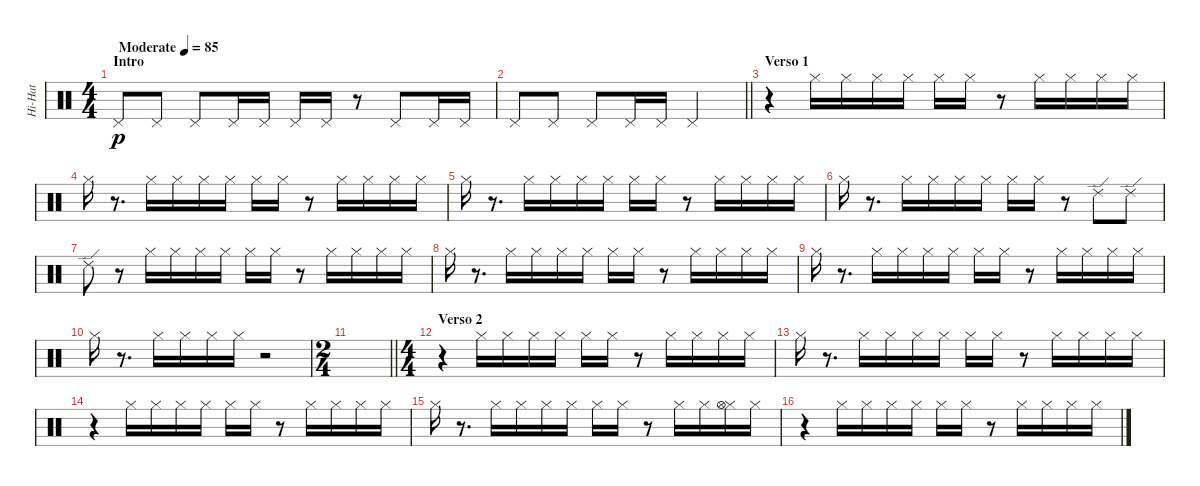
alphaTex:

\track ("Hi-Hat" "Hi-Hat") {instrument percussion}
\staff {score}
\articulation defaults
\ts (4 4)
\section ("" "Intro")
\tempo (85 "Moderate")
\clef neutral
\ks c "Pedal Hi-Hat (hit)".8{dy p} "Pedal Hi-Hat (hit)".8 "Pedal Hi-Hat (hit)".8 "Pedal Hi-Hat (hit)".16 "Pedal Hi-Hat (hit)".16 "Pedal Hi-Hat (hit)".16 "Pedal Hi-Hat (hit)".16
r.8 "Pedal Hi-Hat (hit)".8 "Pedal Hi-Hat (hit)".16 "Pedal Hi-Hat (hit)".16 |
\barLineRight lightlight "Pedal Hi-Hat (hit)".8 "Pedal Hi-Hat (hit)".8 "Pedal Hi-Hat (hit)".8 "Pedal Hi-Hat (hit)".16 "Pedal Hi-Hat (hit)".16 "Pedal Hi-Hat (hit)".2
|
\section ("" "Verso 1")
r.4 "Hi-Hat (closed)".16 "Hi-Hat (closed)".16 "Hi-Hat (closed)".16 "Hi-Hat (closed)".16 "Hi-Hat (closed)".16 "Hi-Hat (closed)".16 r.8 "Hi-Hat (closed)".16 "Hi-Hat (closed)".16 "Hi-Hat (closed)".16 "Hi-Hat (closed)".16 |
"Hi-Hat (closed)".16 r.8{d} "Hi-Hat (closed)".16 "Hi-Hat (closed)".16 "Hi-Hat (closed)".16 "Hi-Hat (closed)".16 "Hi-Hat (closed)".16 "Hi-Hat (closed)".16 r.8 "Hi-Hat (closed)".16 "Hi-Hat (closed)".16 "Hi-Hat (closed)".16 "Hi-Hat (closed)".16 |
"Hi-Hat (closed)".16 r.8{d} "Hi-Hat (closed)".16 "Hi-Hat (closed)".16 "Hi-Hat (closed)".16 "Hi-Hat (closed)".16 "Hi-Hat (closed)".16 "Hi-Hat (closed)".16 r.8 "Hi-Hat (closed)".16 "Hi-Hat (closed)".16 "Hi-Hat (closed)".16 "Hi-Hat (closed)".16 |
"Hi-Hat (closed)".16 r.8{d} "Hi-Hat (closed)".16 "Hi-Hat (closed)".16 "Hi-Hat (closed)".16 "Hi-Hat (closed)".16 "Hi-Hat (closed)".16 "Hi-Hat (closed)".16 r.8 "Ride (edge) 2".8 "Ride (edge) 2".8 |
"Ride (edge) 2".8 r.8 "Hi-Hat (closed)".16 "Hi-Hat (closed)".16 "Hi-Hat (closed)".16 "Hi-Hat (closed)".16 "Hi-Hat (closed)".16 "Hi-Hat (closed)".16 r.8 "Hi-Hat (closed)".16 "Hi-Hat (closed)".16 "Hi-Hat (closed)".16 "Hi-Hat (closed)".16 |
"Hi-Hat (closed)".16 r.8{d} "Hi-Hat (closed)".16 "Hi-Hat (closed)".16 "Hi-Hat (closed)".16 "Hi-Hat (closed)".16 "Hi-Hat (closed)".16 "Hi-Hat (closed)".16 r.8 "Hi-Hat (closed)".16 "Hi-Hat (closed)".16 "Hi-Hat (closed)".16 "Hi-Hat (closed)".16 |
"Hi-Hat (closed)".16 r.8{d} "Hi-Hat (closed)".16 "Hi-Hat (closed)".16 "Hi-Hat (closed)".16 "Hi-Hat (closed)".16 "Hi-Hat (closed)".16 "Hi-Hat (closed)".16 r.8 "Hi-Hat (closed)".16 "Hi-Hat (closed)".16 "Hi-Hat (closed)".16 "Hi-Hat (closed)".16 |
"Hi-Hat (closed)".16 r.8{d} "Hi-Hat (closed)".16 "Hi-Hat (closed)".16 "Hi-Hat (closed)".16 "Hi-Hat (closed)".16 r.2 |
\ts (2 4)
\barLineRight lightlight
|
\ts (4 4)
\section ("" "Verso 2")
r.4 "Hi-Hat (closed)".16 "Hi-Hat (closed)".16 "Hi-Hat (closed)".16 "Hi-Hat (closed)".16 "Hi-Hat (closed)".16 "Hi-Hat (closed)".16 r.8 "Hi-Hat (closed)".16 "Hi-Hat (closed)".16 "Hi-Hat (closed)".16 "Hi-Hat (closed)".16 |
"Hi-Hat (closed)".16 r.8{d} "Hi-Hat (closed)".16 "Hi-Hat (closed)".16 "Hi-Hat (closed)".16 "Hi-Hat (closed)".16 "Hi-Hat (closed)".16 "Hi-Hat (closed)".16 r.8 "Hi-Hat (closed)".16 "Hi-Hat (closed)".16 "Hi-Hat (closed)".16 "Hi-Hat (closed)".16 |
r.4 "Hi-Hat (closed)".16 "Hi-Hat (closed)".16 "Hi-Hat (closed)".16 "Hi-Hat (closed)".16 "Hi-Hat (closed)".16 "Hi-Hat (closed)".16 r.8 "Hi-Hat (closed)".16 "Hi-Hat (closed)".16 "Hi-Hat (closed)".16 "Hi-Hat (closed)".16 |
"Hi-Hat (closed)".16 r.8{d} "Hi-Hat (closed)".16 "Hi-Hat (closed)".16 "Hi-Hat (closed)".16 "Hi-Hat (closed)".16 "Hi-Hat (closed)".16 "Hi-Hat (closed)".16 r.8 "Hi-Hat (closed)".16 "Hi-Hat (closed)".16 ("Hi-Hat (closed)" "Hi-Hat (open)").16 "Hi-Hat (closed)".16 |
r.4 "Hi-Hat (closed)".16 "Hi-Hat (closed)".16 "Hi-Hat (closed)".16 "Hi-Hat (closed)".16 "Hi-Hat (closed)".16 "Hi-Hat (closed)".16 r.8 "Hi-Hat (closed)".16 "Hi-Hat (closed)".16 "Hi-Hat (closed)".16 "Hi-Hat (closed)".16
